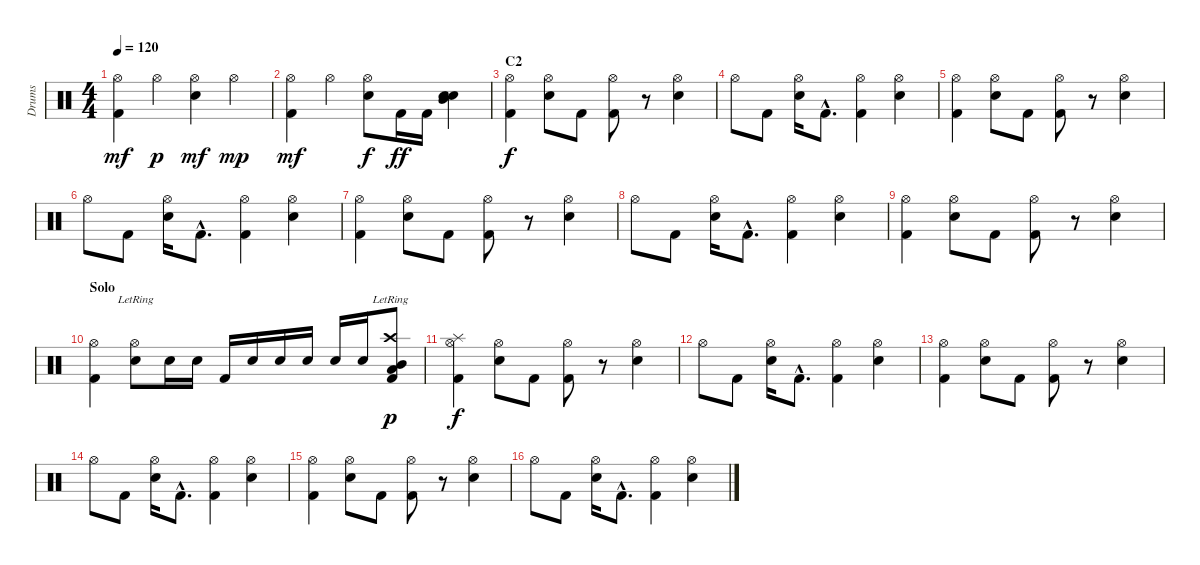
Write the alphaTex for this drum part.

\track ("Drums" "Drums") {instrument percussion}
\staff {score}
\articulation defaults
\ts (4 4)
\tempo 120
\clef neutral
\ks c
("Hi-Hat (open)" "Kick (hit) 2").4{dy mf} "Hi-Hat (open)".4{dy p} ("Hi-Hat (open)" "Snare (hit) 2").4{dy mf} "Hi-Hat (open)".4{dy mp} |
("Hi-Hat (open)" "Kick (hit) 2").4{dy mf} "Hi-Hat (open)".4 ("Hi-Hat (open)" "Snare (hit) 2").8{dy f} "Kick (hit) 2".16{dy ff} "Kick (hit) 2".16 ("Snare (hit) 2" "Snare (hit) 2" "Mid Tom (hit)").4{bd 120} |
\section ("" "C2")
("Hi-Hat (open)" "Kick (hit) 2").4{dy f} ("Hi-Hat (open)" "Snare (hit) 2").8 "Kick (hit) 2".8 ("Hi-Hat (open)" "Kick (hit) 2").8 r.8 ("Hi-Hat (open)" "Snare (hit) 2").4 |
"Hi-Hat (open)".8 "Kick (hit) 2".8 ("Hi-Hat (open)" "Snare (hit) 2").16 "Kick (hit) 2"{hac}.8{d} ("Hi-Hat (open)" "Kick (hit) 2").4 ("Hi-Hat (open)" "Snare (hit) 2").4 |
("Hi-Hat (open)" "Kick (hit) 2").4 ("Hi-Hat (open)" "Snare (hit) 2").8 "Kick (hit) 2".8 ("Hi-Hat (open)" "Kick (hit) 2").8 r.8 ("Hi-Hat (open)" "Snare (hit) 2").4 |
"Hi-Hat (open)".8 "Kick (hit) 2".8 ("Hi-Hat (open)" "Snare (hit) 2").16 "Kick (hit) 2"{hac}.8{d} ("Hi-Hat (open)" "Kick (hit) 2").4 ("Hi-Hat (open)" "Snare (hit) 2").4 |
("Hi-Hat (open)" "Kick (hit) 2").4 ("Hi-Hat (open)" "Snare (hit) 2").8 "Kick (hit) 2".8 ("Hi-Hat (open)" "Kick (hit) 2").8 r.8 ("Hi-Hat (open)" "Snare (hit) 2").4 |
"Hi-Hat (open)".8 "Kick (hit) 2".8 ("Hi-Hat (open)" "Snare (hit) 2").16 "Kick (hit) 2"{hac}.8{d} ("Hi-Hat (open)" "Kick (hit) 2").4 ("Hi-Hat (open)" "Snare (hit) 2").4 |
("Hi-Hat (open)" "Kick (hit) 2").4 ("Hi-Hat (open)" "Snare (hit) 2").8 "Kick (hit) 2".8 ("Hi-Hat (open)" "Kick (hit) 2").8 r.8 ("Hi-Hat (open)" "Snare (hit) 2").4 |
\section ("" "Solo")
("Hi-Hat (open)" "Kick (hit) 2").4 ("Hi-Hat (open)"{lr} "Snare (hit) 2").8 "Snare (hit) 2".16 "Snare (hit) 2".16 "Kick (hit) 2".16 "Snare (hit) 2".16 "Snare (hit) 2".16 "Snare (hit) 2".16 "Snare (hit) 2".16 "Snare (hit) 2".16 ("Crash high (hit)"{lr} "Low Tom (hit)" "Mid Tom (hit)" "Kick (hit) 2").8{dy p} |
("Hi-Hat (open)" "Splash (hit)" "Kick (hit) 2").4{dy f} ("Hi-Hat (open)" "Snare (hit) 2").8 "Kick (hit) 2".8 ("Hi-Hat (open)" "Kick (hit) 2").8 r.8 ("Hi-Hat (open)" "Snare (hit) 2").4 |
"Hi-Hat (open)".8 "Kick (hit) 2".8 ("Hi-Hat (open)" "Snare (hit) 2").16 "Kick (hit) 2"{hac}.8{d} ("Hi-Hat (open)" "Kick (hit) 2").4 ("Hi-Hat (open)" "Snare (hit) 2").4 |
("Hi-Hat (open)" "Kick (hit) 2").4 ("Hi-Hat (open)" "Snare (hit) 2").8 "Kick (hit) 2".8 ("Hi-Hat (open)" "Kick (hit) 2").8 r.8 ("Hi-Hat (open)" "Snare (hit) 2").4 |
"Hi-Hat (open)".8 "Kick (hit) 2".8 ("Hi-Hat (open)" "Snare (hit) 2").16 "Kick (hit) 2"{hac}.8{d} ("Hi-Hat (open)" "Kick (hit) 2").4 ("Hi-Hat (open)" "Snare (hit) 2").4 |
("Hi-Hat (open)" "Kick (hit) 2").4 ("Hi-Hat (open)" "Snare (hit) 2").8 "Kick (hit) 2".8 ("Hi-Hat (open)" "Kick (hit) 2").8 r.8 ("Hi-Hat (open)" "Snare (hit) 2").4 |
"Hi-Hat (open)".8 "Kick (hit) 2".8 ("Hi-Hat (open)" "Snare (hit) 2").16 "Kick (hit) 2"{hac}.8{d} ("Hi-Hat (open)" "Kick (hit) 2").4 ("Hi-Hat (open)" "Snare (hit) 2").4
